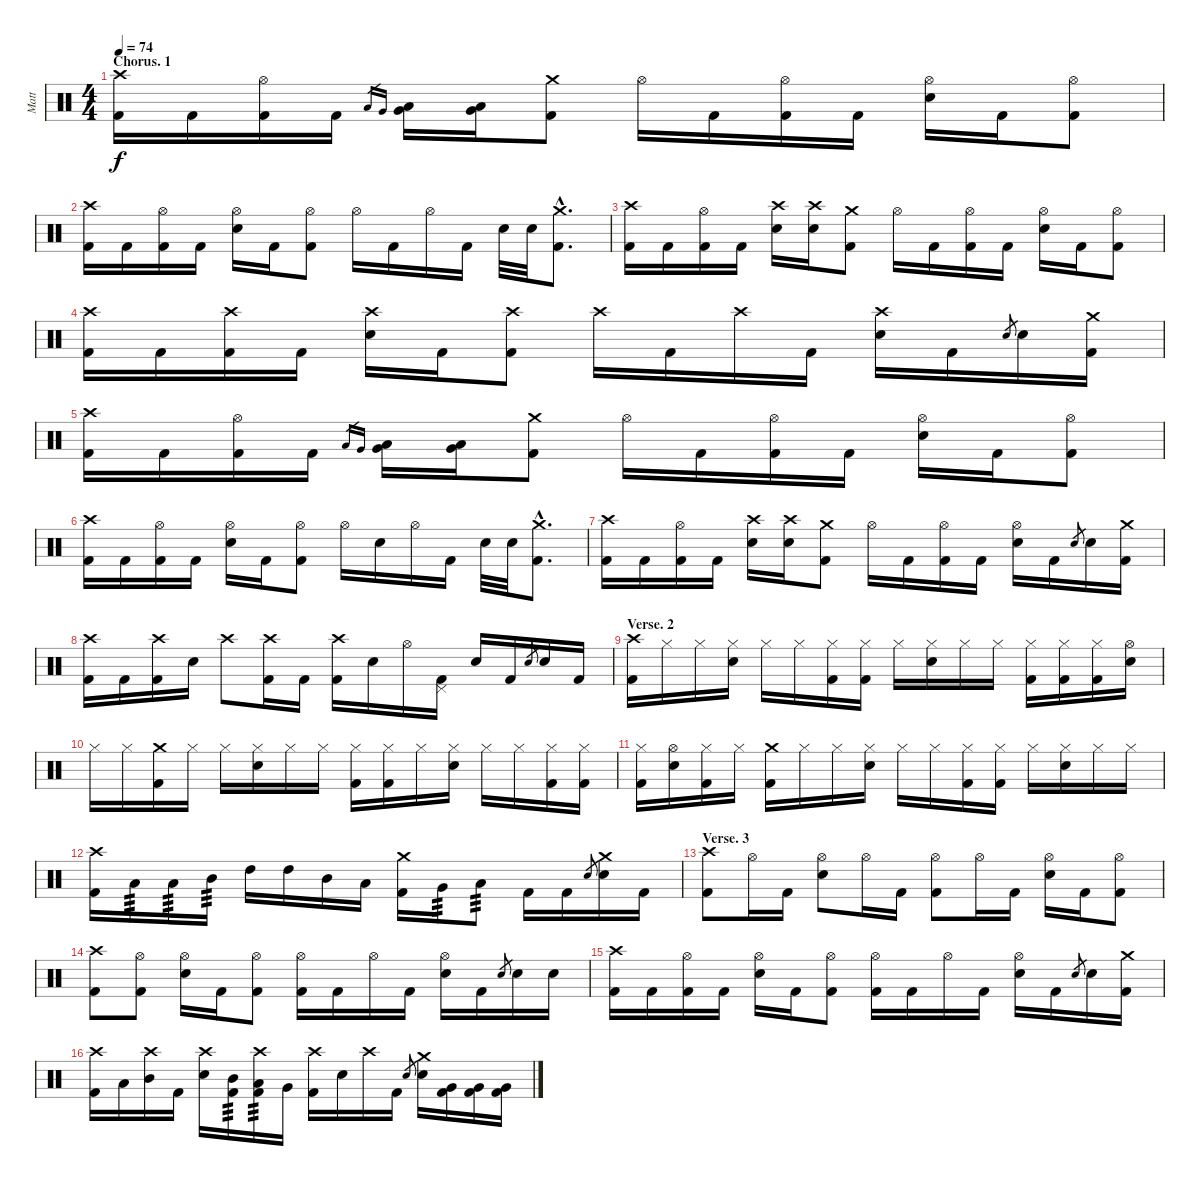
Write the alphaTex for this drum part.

\track ("Matt" "Matt") {instrument percussion}
\staff {score}
\articulation defaults
\ts (4 4)
\section ("" "Chorus. 1")
\tempo 74
\clef neutral
\ks c
("Crash high (hit)" "Kick (hit) 2").16{dy f} "Kick (hit) 2".16 ("Hi-Hat (open)" "Kick (hit) 2").16 "Kick (hit) 2".16 "Low Tom (hit)".16{gr} "Very Low Tom (hit)".16{gr} ("Low Tom (hit)" "Very Low Tom (hit)").16 ("Low Tom (hit)" "Very Low Tom (hit)").16 ("Crash medium (hit)" "Kick (hit) 2").8 "Hi-Hat (open)".16 "Kick (hit) 2".16 ("Hi-Hat (open)" "Kick (hit) 2").16 "Kick (hit) 2".16 ("Hi-Hat (open)" "Electric Snare (hit)").16 "Kick (hit) 2".16 ("Hi-Hat (open)" "Kick (hit) 2").8 |
("Crash high (hit)" "Kick (hit) 2").16 "Kick (hit) 2".16 ("Hi-Hat (open)" "Kick (hit) 2").16 "Kick (hit) 2".16 ("Hi-Hat (open)" "Electric Snare (hit)").16 "Kick (hit) 2".16 ("Hi-Hat (open)" "Kick (hit) 2").8 "Hi-Hat (open)".16 "Kick (hit) 2".16 "Hi-Hat (open)".16 "Kick (hit) 2".16 "Electric Snare (hit)".32 "Electric Snare (hit)".32 ("Crash medium (hit)"{hac} "Kick (hit) 2"{hac}).8{d} |
("Crash high (hit)" "Kick (hit) 2").16 "Kick (hit) 2".16 ("Hi-Hat (open)" "Kick (hit) 2").16 "Kick (hit) 2".16 ("Crash high (hit)" "Electric Snare (hit)").16 ("Crash high (hit)" "Electric Snare (hit)").16 ("Crash medium (hit)" "Kick (hit) 2").8 "Hi-Hat (open)".16 "Kick (hit) 2".16 ("Hi-Hat (open)" "Kick (hit) 2").16 "Kick (hit) 2".16 ("Hi-Hat (open)" "Electric Snare (hit)").16 "Kick (hit) 2".16 ("Hi-Hat (open)" "Kick (hit) 2").8 |
("Crash high (hit)" "Kick (hit) 2").16 "Kick (hit) 2".16 ("Crash high (hit)" "Kick (hit) 2").16 "Kick (hit) 2".16 ("Crash high (hit)" "Electric Snare (hit)").16 "Kick (hit) 2".16 ("Crash high (hit)" "Kick (hit) 2").8 "Crash high (hit)".16 "Kick (hit) 2".16 "Crash high (hit)".16 "Kick (hit) 2".16 ("Crash high (hit)" "Electric Snare (hit)").16 "Kick (hit) 2".16 "Electric Snare (hit)".8{gr} "Electric Snare (hit)".16 ("Crash medium (hit)" "Kick (hit) 2").16 |
("Crash high (hit)" "Kick (hit) 2").16 "Kick (hit) 2".16 ("Hi-Hat (open)" "Kick (hit) 2").16 "Kick (hit) 2".16 "Low Tom (hit)".16{gr} "Very Low Tom (hit)".16{gr} ("Low Tom (hit)" "Very Low Tom (hit)").16 ("Low Tom (hit)" "Very Low Tom (hit)").16 ("Crash medium (hit)" "Kick (hit) 2").8 "Hi-Hat (open)".16 "Kick (hit) 2".16 ("Hi-Hat (open)" "Kick (hit) 2").16 "Kick (hit) 2".16 ("Hi-Hat (open)" "Electric Snare (hit)").16 "Kick (hit) 2".16 ("Hi-Hat (open)" "Kick (hit) 2").8 |
("Crash high (hit)" "Kick (hit) 2").16 "Kick (hit) 2".16 ("Hi-Hat (open)" "Kick (hit) 2").16 "Kick (hit) 2".16 ("Hi-Hat (open)" "Electric Snare (hit)").16 "Kick (hit) 2".16 ("Hi-Hat (open)" "Kick (hit) 2").8 "Hi-Hat (open)".16 "Electric Snare (hit)".16 "Hi-Hat (open)".16 "Kick (hit) 2".16 "Electric Snare (hit)".32 "Electric Snare (hit)".32 ("Crash medium (hit)"{hac} "Kick (hit) 2"{hac}).8{d} |
("Crash high (hit)" "Kick (hit) 2").16 "Kick (hit) 2".16 ("Hi-Hat (open)" "Kick (hit) 2").16 "Kick (hit) 2".16 ("Crash high (hit)" "Electric Snare (hit)").16 ("Crash high (hit)" "Electric Snare (hit)").16 ("Crash medium (hit)" "Kick (hit) 2").8 "Hi-Hat (open)".16 "Kick (hit) 2".16 ("Hi-Hat (open)" "Kick (hit) 2").16 "Kick (hit) 2".16 ("Hi-Hat (open)" "Electric Snare (hit)").16 "Kick (hit) 2".16 "Electric Snare (hit)".8{gr} "Electric Snare (hit)".16 ("Crash medium (hit)" "Kick (hit) 2").16 |
("Crash high (hit)" "Kick (hit) 2").16 "Kick (hit) 2".16 ("Crash high (hit)" "Kick (hit) 2").16 "Electric Snare (hit)".16 "Crash high (hit)".8 ("Crash high (hit)" "Kick (hit) 2").16 "Kick (hit) 2".16 ("Crash high (hit)" "Kick (hit) 2").16 "Electric Snare (hit)".16 "Hi-Hat (open)".16 ("Pedal Hi-Hat (hit)" "Kick (hit) 2").16 "Electric Snare (hit)".16 "Kick (hit) 2".16 "Electric Snare (hit)".8{gr} "Electric Snare (hit)".16 "Kick (hit) 2".16 |
\section ("" "Verse. 2")
("Crash high (hit)" "Kick (hit) 2").16 "Hi-Hat (closed)".16 "Hi-Hat (closed)".16 ("Hi-Hat (closed)" "Electric Snare (hit)").16 "Hi-Hat (closed)".16 "Hi-Hat (closed)".16 ("Hi-Hat (closed)" "Kick (hit) 2").16 ("Hi-Hat (closed)" "Kick (hit) 2").16 "Hi-Hat (closed)".16 ("Hi-Hat (closed)" "Electric Snare (hit)").16 "Hi-Hat (closed)".16 "Hi-Hat (closed)".16 ("Hi-Hat (closed)" "Kick (hit) 2").16 ("Hi-Hat (closed)" "Kick (hit) 2").16 ("Hi-Hat (closed)" "Kick (hit) 2").16 ("Hi-Hat (open)" "Electric Snare (hit)").16 |
"Hi-Hat (closed)".16 "Hi-Hat (closed)".16 ("Crash medium (hit)" "Kick (hit) 2").16 "Hi-Hat (closed)".16 "Hi-Hat (closed)".16 ("Hi-Hat (closed)" "Electric Snare (hit)").16 "Hi-Hat (closed)".16 "Hi-Hat (closed)".16 ("Hi-Hat (closed)" "Kick (hit) 2").16 ("Hi-Hat (closed)" "Kick (hit) 2").16 "Hi-Hat (closed)".16 ("Hi-Hat (closed)" "Electric Snare (hit)").16 "Hi-Hat (closed)".16 "Hi-Hat (closed)".16 ("Hi-Hat (closed)" "Kick (hit) 2").16 ("Hi-Hat (closed)" "Kick (hit) 2").16 |
("Hi-Hat (closed)" "Kick (hit) 2").16 ("Hi-Hat (open)" "Electric Snare (hit)").16 ("Hi-Hat (closed)" "Kick (hit) 2").16 "Hi-Hat (closed)".16 ("Crash medium (hit)" "Kick (hit) 2").16 "Hi-Hat (closed)".16 "Hi-Hat (closed)".16 ("Hi-Hat (closed)" "Electric Snare (hit)").16 "Hi-Hat (closed)".16 "Hi-Hat (closed)".16 ("Hi-Hat (closed)" "Kick (hit) 2").16 ("Hi-Hat (closed)" "Kick (hit) 2").16 "Hi-Hat (closed)".16 ("Hi-Hat (closed)" "Electric Snare (hit)").16 "Hi-Hat (closed)".16 "Hi-Hat (closed)".16 |
("Crash high (hit)" "Kick (hit) 2").16 "Low Tom (hit)".16{tp 3} "Low Tom (hit)".16{tp 3} "Mid Tom (hit)".16{tp 3} "High Tom (hit)".16 "High Tom (hit)".16 "Mid Tom (hit)".16 "Low Tom (hit)".16 ("Crash medium (hit)" "Kick (hit) 2").16 "Very Low Tom (hit)".16{tp 3} "Low Floor Tom (hit)".8{tp 3} "Kick (hit) 2".16 "Kick (hit) 2".16 "Electric Snare (hit)".8{gr} ("Crash medium (hit)" "Electric Snare (hit)").16 "Kick (hit) 2".16 |
\section ("" "Verse. 3")
("Crash high (hit)" "Kick (hit) 2").8 "Hi-Hat (open)".16 "Kick (hit) 2".16 ("Hi-Hat (open)" "Electric Snare (hit)").8 "Hi-Hat (open)".16 "Kick (hit) 2".16 ("Hi-Hat (open)" "Kick (hit) 2").8 "Hi-Hat (open)".16 "Kick (hit) 2".16 ("Hi-Hat (open)" "Electric Snare (hit)").16 "Kick (hit) 2".16 ("Hi-Hat (open)" "Kick (hit) 2").8 |
("Crash high (hit)" "Kick (hit) 2").8 ("Hi-Hat (open)" "Kick (hit) 2").8 ("Hi-Hat (open)" "Electric Snare (hit)").16 "Kick (hit) 2".16 ("Hi-Hat (open)" "Kick (hit) 2").8 ("Hi-Hat (open)" "Kick (hit) 2").16 "Kick (hit) 2".16 "Hi-Hat (open)".16 "Kick (hit) 2".16 ("Hi-Hat (open)" "Electric Snare (hit)").16 "Kick (hit) 2".16 "Electric Snare (hit)".8{gr} "Electric Snare (hit)".16 "Electric Snare (hit)".16 |
("Crash high (hit)" "Kick (hit) 2").16 "Kick (hit) 2".16 ("Hi-Hat (open)" "Kick (hit) 2").16 "Kick (hit) 2".16 ("Hi-Hat (open)" "Electric Snare (hit)").16 "Kick (hit) 2".16 ("Hi-Hat (open)" "Kick (hit) 2").8 ("Hi-Hat (open)" "Kick (hit) 2").16 "Kick (hit) 2".16 "Hi-Hat (open)".16 "Kick (hit) 2".16 ("Hi-Hat (open)" "Electric Snare (hit)").16 "Kick (hit) 2".16 "Electric Snare (hit)".8{gr} "Electric Snare (hit)".16 ("Crash medium (hit)" "Kick (hit) 2").16 |
("Crash high (hit)" "Kick (hit) 2").16 "Low Tom (hit)".16 ("Crash high (hit)" "Mid Tom (hit)").16 "Kick (hit) 2".16 ("Crash high (hit)" "Electric Snare (hit)").16 ("Mid Tom (hit)" "Kick (hit) 2").16{tp 3} ("Crash high (hit)" "Low Tom (hit)" "Kick (hit) 2").16{tp 3} "Very Low Tom (hit)".16 ("Crash high (hit)" "Kick (hit) 2").16 "Electric Snare (hit)".16 "Crash high (hit)".16 "Kick (hit) 2".16 "Electric Snare (hit)".8{gr} ("Crash medium (hit)" "Electric Snare (hit)").16 ("Very Low Tom (hit)" "Kick (hit) 2").16 ("Very Low Tom (hit)" "Kick (hit) 2").16 ("Very Low Tom (hit)" "Kick (hit) 2").16
